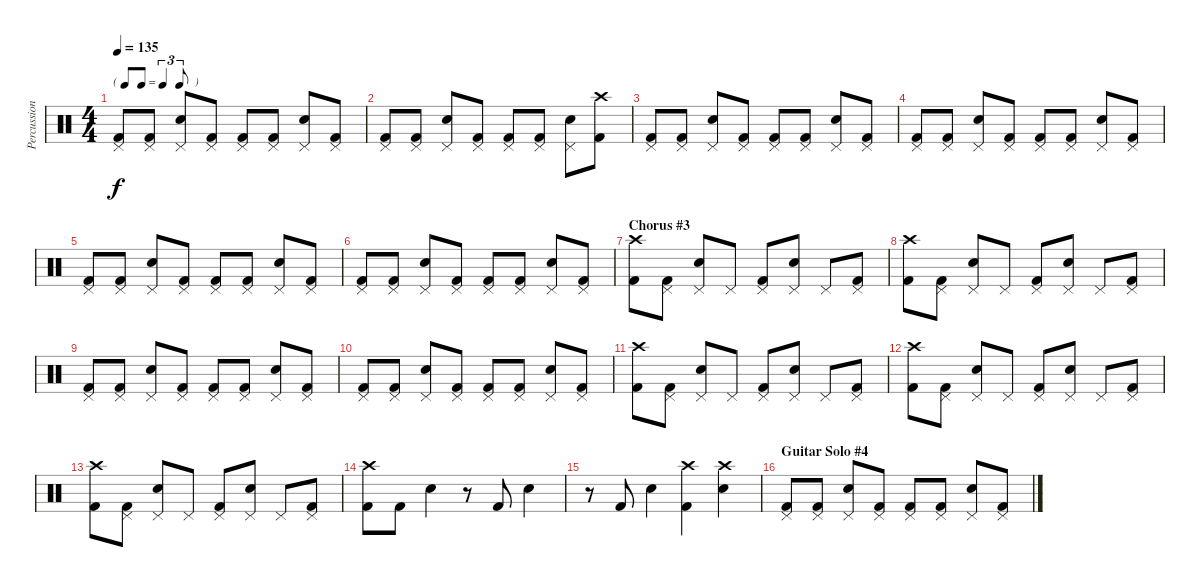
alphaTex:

\track ("Percussion" "Percussion") {instrument percussion}
\staff {score}
\articulation defaults
\ts (4 4)
\tf triplet8th
\tempo 135
\clef neutral
\ks c
("Pedal Hi-Hat (hit)" "Kick (hit) 2").8{dy f} ("Pedal Hi-Hat (hit)" "Kick (hit) 2").8 ("Pedal Hi-Hat (hit)" "Electric Snare (hit)").8 ("Pedal Hi-Hat (hit)" "Kick (hit) 2").8 ("Pedal Hi-Hat (hit)" "Kick (hit) 2").8 ("Pedal Hi-Hat (hit)" "Kick (hit) 2").8 ("Pedal Hi-Hat (hit)" "Electric Snare (hit)").8 ("Pedal Hi-Hat (hit)" "Kick (hit) 2").8 |
("Pedal Hi-Hat (hit)" "Kick (hit) 2").8 ("Pedal Hi-Hat (hit)" "Kick (hit) 2").8 ("Pedal Hi-Hat (hit)" "Electric Snare (hit)").8 ("Pedal Hi-Hat (hit)" "Kick (hit) 2").8 ("Pedal Hi-Hat (hit)" "Kick (hit) 2").8 ("Pedal Hi-Hat (hit)" "Kick (hit) 2").8 ("Pedal Hi-Hat (hit)" "Electric Snare (hit)").8 ("Crash high (hit)" "Kick (hit) 2").8 |
("Pedal Hi-Hat (hit)" "Kick (hit) 2").8 ("Pedal Hi-Hat (hit)" "Kick (hit) 2").8 ("Pedal Hi-Hat (hit)" "Electric Snare (hit)").8 ("Pedal Hi-Hat (hit)" "Kick (hit) 2").8 ("Pedal Hi-Hat (hit)" "Kick (hit) 2").8 ("Pedal Hi-Hat (hit)" "Kick (hit) 2").8 ("Pedal Hi-Hat (hit)" "Electric Snare (hit)").8 ("Pedal Hi-Hat (hit)" "Kick (hit) 2").8 |
("Pedal Hi-Hat (hit)" "Kick (hit) 2").8 ("Pedal Hi-Hat (hit)" "Kick (hit) 2").8 ("Pedal Hi-Hat (hit)" "Electric Snare (hit)").8 ("Pedal Hi-Hat (hit)" "Kick (hit) 2").8 ("Pedal Hi-Hat (hit)" "Kick (hit) 2").8 ("Pedal Hi-Hat (hit)" "Kick (hit) 2").8 ("Pedal Hi-Hat (hit)" "Electric Snare (hit)").8 ("Pedal Hi-Hat (hit)" "Kick (hit) 2").8 |
("Pedal Hi-Hat (hit)" "Kick (hit) 2").8 ("Pedal Hi-Hat (hit)" "Kick (hit) 2").8 ("Pedal Hi-Hat (hit)" "Electric Snare (hit)").8 ("Pedal Hi-Hat (hit)" "Kick (hit) 2").8 ("Pedal Hi-Hat (hit)" "Kick (hit) 2").8 ("Pedal Hi-Hat (hit)" "Kick (hit) 2").8 ("Pedal Hi-Hat (hit)" "Electric Snare (hit)").8 ("Pedal Hi-Hat (hit)" "Kick (hit) 2").8 |
("Pedal Hi-Hat (hit)" "Kick (hit) 2").8 ("Pedal Hi-Hat (hit)" "Kick (hit) 2").8 ("Pedal Hi-Hat (hit)" "Electric Snare (hit)").8 ("Pedal Hi-Hat (hit)" "Kick (hit) 2").8 ("Pedal Hi-Hat (hit)" "Kick (hit) 2").8 ("Pedal Hi-Hat (hit)" "Kick (hit) 2").8 ("Pedal Hi-Hat (hit)" "Electric Snare (hit)").8 ("Pedal Hi-Hat (hit)" "Kick (hit) 2").8 |
\section ("" "Chorus #3")
("Crash high (hit)" "Kick (hit) 2").8 ("Pedal Hi-Hat (hit)" "Kick (hit) 2").8 ("Pedal Hi-Hat (hit)" "Electric Snare (hit)").8 "Pedal Hi-Hat (hit)".8 ("Pedal Hi-Hat (hit)" "Kick (hit) 2").8 ("Pedal Hi-Hat (hit)" "Electric Snare (hit)").8 "Pedal Hi-Hat (hit)".8 ("Pedal Hi-Hat (hit)" "Kick (hit) 2").8 |
("Crash high (hit)" "Kick (hit) 2").8 ("Pedal Hi-Hat (hit)" "Kick (hit) 2").8 ("Pedal Hi-Hat (hit)" "Electric Snare (hit)").8 "Pedal Hi-Hat (hit)".8 ("Pedal Hi-Hat (hit)" "Kick (hit) 2").8 ("Pedal Hi-Hat (hit)" "Electric Snare (hit)").8 "Pedal Hi-Hat (hit)".8 ("Pedal Hi-Hat (hit)" "Kick (hit) 2").8 |
("Pedal Hi-Hat (hit)" "Kick (hit) 2").8 ("Pedal Hi-Hat (hit)" "Kick (hit) 2").8 ("Pedal Hi-Hat (hit)" "Electric Snare (hit)").8 ("Pedal Hi-Hat (hit)" "Kick (hit) 2").8 ("Pedal Hi-Hat (hit)" "Kick (hit) 2").8 ("Pedal Hi-Hat (hit)" "Kick (hit) 2").8 ("Pedal Hi-Hat (hit)" "Electric Snare (hit)").8 ("Pedal Hi-Hat (hit)" "Kick (hit) 2").8 |
("Pedal Hi-Hat (hit)" "Kick (hit) 2").8 ("Pedal Hi-Hat (hit)" "Kick (hit) 2").8 ("Pedal Hi-Hat (hit)" "Electric Snare (hit)").8 ("Pedal Hi-Hat (hit)" "Kick (hit) 2").8 ("Pedal Hi-Hat (hit)" "Kick (hit) 2").8 ("Pedal Hi-Hat (hit)" "Kick (hit) 2").8 ("Pedal Hi-Hat (hit)" "Electric Snare (hit)").8 ("Pedal Hi-Hat (hit)" "Kick (hit) 2").8 |
("Crash high (hit)" "Kick (hit) 2").8 ("Pedal Hi-Hat (hit)" "Kick (hit) 2").8 ("Pedal Hi-Hat (hit)" "Electric Snare (hit)").8 "Pedal Hi-Hat (hit)".8 ("Pedal Hi-Hat (hit)" "Kick (hit) 2").8 ("Pedal Hi-Hat (hit)" "Electric Snare (hit)").8 "Pedal Hi-Hat (hit)".8 ("Pedal Hi-Hat (hit)" "Kick (hit) 2").8 |
("Crash high (hit)" "Kick (hit) 2").8 ("Pedal Hi-Hat (hit)" "Kick (hit) 2").8 ("Pedal Hi-Hat (hit)" "Electric Snare (hit)").8 "Pedal Hi-Hat (hit)".8 ("Pedal Hi-Hat (hit)" "Kick (hit) 2").8 ("Pedal Hi-Hat (hit)" "Electric Snare (hit)").8 "Pedal Hi-Hat (hit)".8 ("Pedal Hi-Hat (hit)" "Kick (hit) 2").8 |
("Crash high (hit)" "Kick (hit) 2").8 ("Pedal Hi-Hat (hit)" "Kick (hit) 2").8 ("Pedal Hi-Hat (hit)" "Electric Snare (hit)").8 "Pedal Hi-Hat (hit)".8 ("Pedal Hi-Hat (hit)" "Kick (hit) 2").8 ("Pedal Hi-Hat (hit)" "Electric Snare (hit)").8 "Pedal Hi-Hat (hit)".8 ("Pedal Hi-Hat (hit)" "Kick (hit) 2").8 |
("Crash high (hit)" "Kick (hit) 2").8 "Kick (hit) 2".8 "Electric Snare (hit)".4 r.8 "Kick (hit) 2".8 "Electric Snare (hit)".4 |
r.8 "Kick (hit) 2".8 "Electric Snare (hit)".4 ("Crash high (hit)" "Kick (hit) 2").4 ("Crash high (hit)" "Electric Snare (hit)").4 |
\section ("" "Guitar Solo #4")
("Pedal Hi-Hat (hit)" "Kick (hit) 2").8 ("Pedal Hi-Hat (hit)" "Kick (hit) 2").8 ("Pedal Hi-Hat (hit)" "Electric Snare (hit)").8 ("Pedal Hi-Hat (hit)" "Kick (hit) 2").8 ("Pedal Hi-Hat (hit)" "Kick (hit) 2").8 ("Pedal Hi-Hat (hit)" "Kick (hit) 2").8 ("Pedal Hi-Hat (hit)" "Electric Snare (hit)").8 ("Pedal Hi-Hat (hit)" "Kick (hit) 2").8
